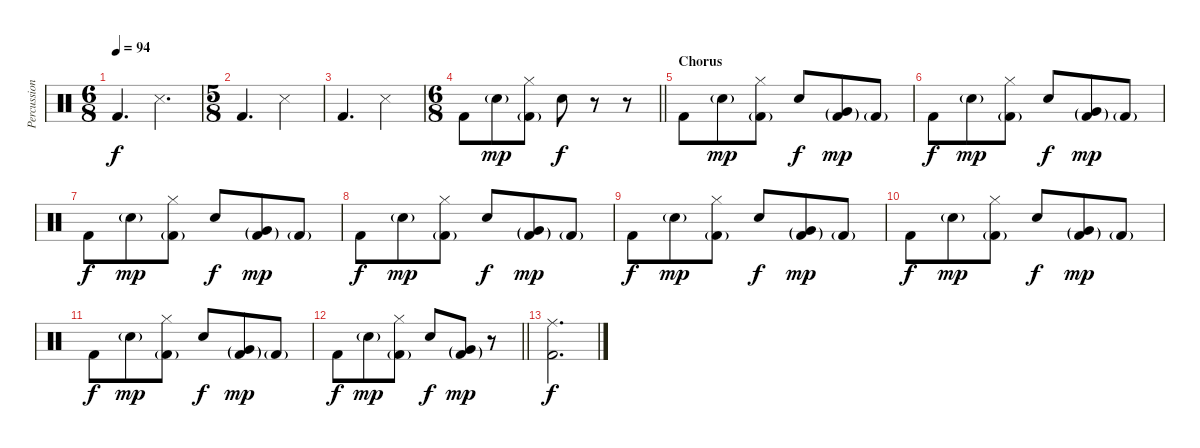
\track ("Percussion" "Percussion") {instrument percussion}
\staff {score}
\articulation defaults
\ts (6 8)
\tempo 94
\clef neutral
\ks c "Kick (hit) 2".4{d dy f} "Snare (side stick) 3".4{d}
|
\ts (5 8)
"Kick (hit) 2".4{d} "Snare (side stick) 3".4 |
"Kick (hit) 2".4{d} "Snare (side stick) 3".4 |
\ts (6 8)
\barLineRight lightlight "Kick (hit) 2".8 "Snare (hit) 2"{g}.8{dy mp}
("Hi-Hat (closed)" "Kick (hit) 2"{g}).8 "Snare (hit) 2".8{dy f} r.8 r.8 |
\section ("" "Chorus")
"Kick (hit) 2".8 "Snare (hit) 2"{g}.8{dy mp} ("Hi-Hat (closed)" "Kick (hit) 2"{g}).8 "Snare (hit) 2".8{dy f} ("Very Low Tom (hit)"{g} "Kick (hit) 2"{g}).8{dy mp} "Kick (hit) 2"{g}.8 |
"Kick (hit) 2".8{dy f} "Snare (hit) 2"{g}.8{dy mp} ("Hi-Hat (closed)" "Kick (hit) 2"{g}).8 "Snare (hit) 2".8{dy f} ("Very Low Tom (hit)"{g} "Kick (hit) 2"{g}).8{dy mp} "Kick (hit) 2"{g}.8 |
"Kick (hit) 2".8{dy f} "Snare (hit) 2"{g}.8{dy mp} ("Hi-Hat (closed)" "Kick (hit) 2"{g}).8 "Snare (hit) 2".8{dy f} ("Very Low Tom (hit)"{g} "Kick (hit) 2"{g}).8{dy mp} "Kick (hit) 2"{g}.8 |
"Kick (hit) 2".8{dy f} "Snare (hit) 2"{g}.8{dy mp} ("Hi-Hat (closed)" "Kick (hit) 2"{g}).8 "Snare (hit) 2".8{dy f} ("Very Low Tom (hit)"{g} "Kick (hit) 2"{g}).8{dy mp} "Kick (hit) 2"{g}.8 |
"Kick (hit) 2".8{dy f} "Snare (hit) 2"{g}.8{dy mp} ("Hi-Hat (closed)" "Kick (hit) 2"{g}).8 "Snare (hit) 2".8{dy f} ("Very Low Tom (hit)"{g} "Kick (hit) 2"{g}).8{dy mp} "Kick (hit) 2"{g}.8 |
"Kick (hit) 2".8{dy f} "Snare (hit) 2"{g}.8{dy mp} ("Hi-Hat (closed)" "Kick (hit) 2"{g}).8 "Snare (hit) 2".8{dy f} ("Very Low Tom (hit)"{g} "Kick (hit) 2"{g}).8{dy mp} "Kick (hit) 2"{g}.8 |
"Kick (hit) 2".8{dy f} "Snare (hit) 2"{g}.8{dy mp} ("Hi-Hat (closed)" "Kick (hit) 2"{g}).8 "Snare (hit) 2".8{dy f} ("Very Low Tom (hit)"{g} "Kick (hit) 2"{g}).8{dy mp} "Kick (hit) 2"{g}.8 |
\barLineRight lightlight "Kick (hit) 2".8{dy f} "Snare (hit) 2"{g}.8{dy mp}
("Hi-Hat (closed)" "Kick (hit) 2"{g}).8 "Snare (hit) 2".8{dy f} ("Very Low Tom (hit)"{g} "Kick (hit) 2"{g}).8{dy mp} r.8 |
("Ride (middle)" "Kick (hit) 2").2{d dy f}
